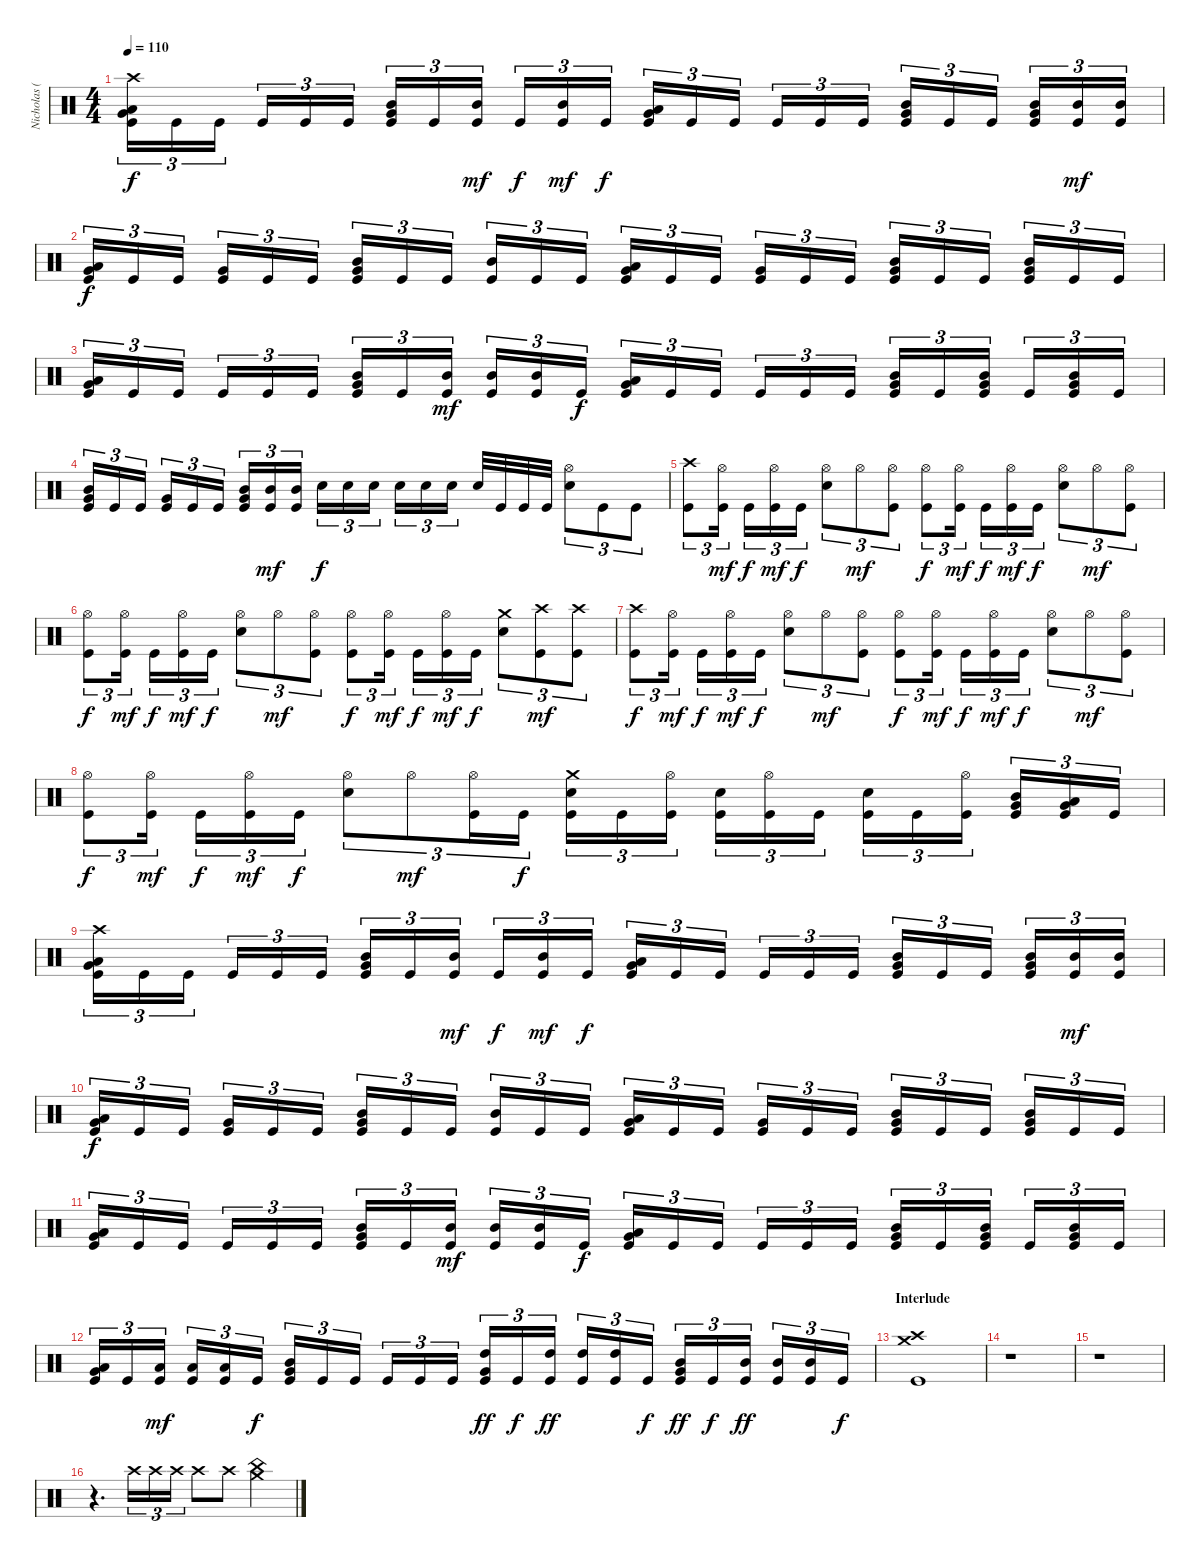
\track ("Nicholas (Drums)" "Nicholas (") {instrument percussion}
\staff {score}
\articulation defaults
\ts (4 4)
\tempo 110
\clef neutral
\ks c
("Crash high (hit)" "Low Tom (hit)" "Very Low Tom (hit)" "Kick (hit)").16{tu (3 2) dy f} "Kick (hit)".16{tu (3 2)} "Kick (hit)".16{tu (3 2)} "Kick (hit)".16{tu (3 2)} "Kick (hit)".16{tu (3 2)} "Kick (hit)".16{tu (3 2)} ("Mid Tom (hit)" "Very Low Tom (hit)" "Kick (hit)").16{tu (3 2)} "Kick (hit)".16{tu (3 2)} ("Mid Tom (hit)" "Kick (hit)").16{tu (3 2) dy mf} "Kick (hit)".16{tu (3 2) dy f} ("Mid Tom (hit)" "Kick (hit)").16{tu (3 2) dy mf} "Kick (hit)".16{tu (3 2) dy f} ("Low Tom (hit)" "Very Low Tom (hit)" "Kick (hit)").16{tu (3 2)} "Kick (hit)".16{tu (3 2)} "Kick (hit)".16{tu (3 2)} "Kick (hit)".16{tu (3 2)} "Kick (hit)".16{tu (3 2)} "Kick (hit)".16{tu (3 2)} ("Mid Tom (hit)" "Very Low Tom (hit)" "Kick (hit)").16{tu (3 2)} "Kick (hit)".16{tu (3 2)} "Kick (hit)".16{tu (3 2)} ("Mid Tom (hit)" "Very Low Tom (hit)" "Kick (hit)").16{tu (3 2)} ("Mid Tom (hit)" "Kick (hit)").16{tu (3 2) dy mf} ("Mid Tom (hit)" "Kick (hit)").16{tu (3 2)} |
("Low Tom (hit)" "Very Low Tom (hit)" "Kick (hit)").16{tu (3 2) dy f} "Kick (hit)".16{tu (3 2)} "Kick (hit)".16{tu (3 2)} ("Very Low Tom (hit)" "Kick (hit)").16{tu (3 2)} "Kick (hit)".16{tu (3 2)} "Kick (hit)".16{tu (3 2)} ("Mid Tom (hit)" "Very Low Tom (hit)" "Kick (hit)").16{tu (3 2)} "Kick (hit)".16{tu (3 2)} "Kick (hit)".16{tu (3 2)} ("Mid Tom (hit)" "Kick (hit)").16{tu (3 2)} "Kick (hit)".16{tu (3 2)} "Kick (hit)".16{tu (3 2)} ("Low Tom (hit)" "Very Low Tom (hit)" "Kick (hit)").16{tu (3 2)} "Kick (hit)".16{tu (3 2)} "Kick (hit)".16{tu (3 2)} ("Very Low Tom (hit)" "Kick (hit)").16{tu (3 2)} "Kick (hit)".16{tu (3 2)} "Kick (hit)".16{tu (3 2)} ("Mid Tom (hit)" "Very Low Tom (hit)" "Kick (hit)").16{tu (3 2)} "Kick (hit)".16{tu (3 2)} "Kick (hit)".16{tu (3 2)} ("Mid Tom (hit)" "Very Low Tom (hit)" "Kick (hit)").16{tu (3 2)} "Kick (hit)".16{tu (3 2)} "Kick (hit)".16{tu (3 2)} |
("Low Tom (hit)" "Very Low Tom (hit)" "Kick (hit)").16{tu (3 2)} "Kick (hit)".16{tu (3 2)} "Kick (hit)".16{tu (3 2)} "Kick (hit)".16{tu (3 2)} "Kick (hit)".16{tu (3 2)} "Kick (hit)".16{tu (3 2)} ("Mid Tom (hit)" "Very Low Tom (hit)" "Kick (hit)").16{tu (3 2)} "Kick (hit)".16{tu (3 2)} ("Mid Tom (hit)" "Kick (hit)").16{tu (3 2) dy mf} ("Mid Tom (hit)" "Kick (hit)").16{tu (3 2)} ("Mid Tom (hit)" "Kick (hit)").16{tu (3 2)} "Kick (hit)".16{tu (3 2) dy f} ("Low Tom (hit)" "Very Low Tom (hit)" "Kick (hit)").16{tu (3 2)} "Kick (hit)".16{tu (3 2)} "Kick (hit)".16{tu (3 2)} "Kick (hit)".16{tu (3 2)} "Kick (hit)".16{tu (3 2)} "Kick (hit)".16{tu (3 2)} ("Mid Tom (hit)" "Very Low Tom (hit)" "Kick (hit)").16{tu (3 2)} "Kick (hit)".16{tu (3 2)} ("Mid Tom (hit)" "Very Low Tom (hit)" "Kick (hit)").16{tu (3 2)} "Kick (hit)".16{tu (3 2)} ("Mid Tom (hit)" "Very Low Tom (hit)" "Kick (hit)").16{tu (3 2)} "Kick (hit)".16{tu (3 2)} |
("Mid Tom (hit)" "Very Low Tom (hit)" "Kick (hit)").16{tu (3 2)} "Kick (hit)".16{tu (3 2)} "Kick (hit)".16{tu (3 2)} ("Very Low Tom (hit)" "Kick (hit)").16{tu (3 2)} "Kick (hit)".16{tu (3 2)} "Kick (hit)".16{tu (3 2)} ("Mid Tom (hit)" "Very Low Tom (hit)" "Kick (hit)").16{tu (3 2)} ("Mid Tom (hit)" "Kick (hit)").16{tu (3 2) dy mf} ("Mid Tom (hit)" "Kick (hit)").16{tu (3 2)} "Electric Snare (hit)".16{tu (3 2) dy f} "Electric Snare (hit)".16{tu (3 2)} "Electric Snare (hit)".16{tu (3 2)} "Electric Snare (hit)".16{tu (3 2)} "Electric Snare (hit)".16{tu (3 2)} "Electric Snare (hit)".16{tu (3 2)} "Electric Snare (hit)".32 "Kick (hit)".32 "Kick (hit)".32 "Kick (hit)".32 ("Hi-Hat (open)" "Electric Snare (hit)").8{tu (3 2)} "Kick (hit)".8{tu (3 2)} "Kick (hit)".8{tu (3 2)} |
("Crash high (hit)" "Kick (hit)").8{tu (3 2)} ("Hi-Hat (open)" "Kick (hit)").16{tu (3 2) dy mf} "Kick (hit)".16{tu (3 2) dy f} ("Hi-Hat (open)" "Kick (hit)").16{tu (3 2) dy mf} "Kick (hit)".16{tu (3 2) dy f} ("Hi-Hat (open)" "Electric Snare (hit)").8{tu (3 2)} "Hi-Hat (open)".8{tu (3 2) dy mf} ("Hi-Hat (open)" "Kick (hit)").8{tu (3 2)} ("Hi-Hat (open)" "Kick (hit)").8{tu (3 2) dy f} ("Hi-Hat (open)" "Kick (hit)").16{tu (3 2) dy mf} "Kick (hit)".16{tu (3 2) dy f} ("Hi-Hat (open)" "Kick (hit)").16{tu (3 2) dy mf} "Kick (hit)".16{tu (3 2) dy f} ("Hi-Hat (open)" "Electric Snare (hit)").8{tu (3 2)} "Hi-Hat (open)".8{tu (3 2) dy mf} ("Hi-Hat (open)" "Kick (hit)").8{tu (3 2)} |
("Hi-Hat (open)" "Kick (hit)").8{tu (3 2) dy f} ("Hi-Hat (open)" "Kick (hit)").16{tu (3 2) dy mf} "Kick (hit)".16{tu (3 2) dy f} ("Hi-Hat (open)" "Kick (hit)").16{tu (3 2) dy mf} "Kick (hit)".16{tu (3 2) dy f} ("Hi-Hat (open)" "Electric Snare (hit)").8{tu (3 2)} "Hi-Hat (open)".8{tu (3 2) dy mf} ("Hi-Hat (open)" "Kick (hit)").8{tu (3 2)} ("Hi-Hat (open)" "Kick (hit)").8{tu (3 2) dy f} ("Hi-Hat (open)" "Kick (hit)").16{tu (3 2) dy mf} "Kick (hit)".16{tu (3 2) dy f} ("Hi-Hat (open)" "Kick (hit)").16{tu (3 2) dy mf} "Kick (hit)".16{tu (3 2) dy f} ("Crash medium (hit)" "Electric Snare (hit)").8{tu (3 2)} ("Crash high (hit)" "Kick (hit)").8{tu (3 2) dy mf} ("Crash high (hit)" "Kick (hit)").8{tu (3 2)} |
("Crash high (hit)" "Kick (hit)").8{tu (3 2) dy f} ("Hi-Hat (open)" "Kick (hit)").16{tu (3 2) dy mf} "Kick (hit)".16{tu (3 2) dy f} ("Hi-Hat (open)" "Kick (hit)").16{tu (3 2) dy mf} "Kick (hit)".16{tu (3 2) dy f} ("Hi-Hat (open)" "Electric Snare (hit)").8{tu (3 2)} "Hi-Hat (open)".8{tu (3 2) dy mf} ("Hi-Hat (open)" "Kick (hit)").8{tu (3 2)} ("Hi-Hat (open)" "Kick (hit)").8{tu (3 2) dy f} ("Hi-Hat (open)" "Kick (hit)").16{tu (3 2) dy mf} "Kick (hit)".16{tu (3 2) dy f} ("Hi-Hat (open)" "Kick (hit)").16{tu (3 2) dy mf} "Kick (hit)".16{tu (3 2) dy f} ("Hi-Hat (open)" "Electric Snare (hit)").8{tu (3 2)} "Hi-Hat (open)".8{tu (3 2) dy mf} ("Hi-Hat (open)" "Kick (hit)").8{tu (3 2)} |
("Hi-Hat (open)" "Kick (hit)").8{tu (3 2) dy f} ("Hi-Hat (open)" "Kick (hit)").16{tu (3 2) dy mf} "Kick (hit)".16{tu (3 2) dy f} ("Hi-Hat (open)" "Kick (hit)").16{tu (3 2) dy mf} "Kick (hit)".16{tu (3 2) dy f} ("Hi-Hat (open)" "Electric Snare (hit)").8{tu (3 2)} "Hi-Hat (open)".8{tu (3 2) dy mf} ("Hi-Hat (open)" "Kick (hit)").16{tu (3 2)} "Kick (hit)".16{tu (3 2) dy f} ("Crash medium (hit)" "Electric Snare (hit)" "Kick (hit)").16{tu (3 2)} "Kick (hit)".16{tu (3 2)} ("Hi-Hat (open)" "Kick (hit)").16{tu (3 2)} ("Electric Snare (hit)" "Kick (hit)").16{tu (3 2)} ("Hi-Hat (open)" "Kick (hit)").16{tu (3 2)} "Kick (hit)".16{tu (3 2)} ("Electric Snare (hit)" "Kick (hit)").16{tu (3 2)} "Kick (hit)".16{tu (3 2)} ("Hi-Hat (open)" "Kick (hit)").16{tu (3 2)} ("Mid Tom (hit)" "Very Low Tom (hit)" "Kick (hit)").16{tu (3 2)} ("Low Tom (hit)" "Very Low Tom (hit)" "Kick (hit)").16{tu (3 2)} "Kick (hit)".16{tu (3 2)} |
("Crash high (hit)" "Low Tom (hit)" "Very Low Tom (hit)" "Kick (hit)").16{tu (3 2)} "Kick (hit)".16{tu (3 2)} "Kick (hit)".16{tu (3 2)} "Kick (hit)".16{tu (3 2)} "Kick (hit)".16{tu (3 2)} "Kick (hit)".16{tu (3 2)} ("Mid Tom (hit)" "Very Low Tom (hit)" "Kick (hit)").16{tu (3 2)} "Kick (hit)".16{tu (3 2)} ("Mid Tom (hit)" "Kick (hit)").16{tu (3 2) dy mf} "Kick (hit)".16{tu (3 2) dy f} ("Mid Tom (hit)" "Kick (hit)").16{tu (3 2) dy mf} "Kick (hit)".16{tu (3 2) dy f} ("Low Tom (hit)" "Very Low Tom (hit)" "Kick (hit)").16{tu (3 2)} "Kick (hit)".16{tu (3 2)} "Kick (hit)".16{tu (3 2)} "Kick (hit)".16{tu (3 2)} "Kick (hit)".16{tu (3 2)} "Kick (hit)".16{tu (3 2)} ("Mid Tom (hit)" "Very Low Tom (hit)" "Kick (hit)").16{tu (3 2)} "Kick (hit)".16{tu (3 2)} "Kick (hit)".16{tu (3 2)} ("Mid Tom (hit)" "Very Low Tom (hit)" "Kick (hit)").16{tu (3 2)} ("Mid Tom (hit)" "Kick (hit)").16{tu (3 2) dy mf} ("Mid Tom (hit)" "Kick (hit)").16{tu (3 2)} |
("Low Tom (hit)" "Very Low Tom (hit)" "Kick (hit)").16{tu (3 2) dy f} "Kick (hit)".16{tu (3 2)} "Kick (hit)".16{tu (3 2)} ("Very Low Tom (hit)" "Kick (hit)").16{tu (3 2)} "Kick (hit)".16{tu (3 2)} "Kick (hit)".16{tu (3 2)} ("Mid Tom (hit)" "Very Low Tom (hit)" "Kick (hit)").16{tu (3 2)} "Kick (hit)".16{tu (3 2)} "Kick (hit)".16{tu (3 2)} ("Mid Tom (hit)" "Kick (hit)").16{tu (3 2)} "Kick (hit)".16{tu (3 2)} "Kick (hit)".16{tu (3 2)} ("Low Tom (hit)" "Very Low Tom (hit)" "Kick (hit)").16{tu (3 2)} "Kick (hit)".16{tu (3 2)} "Kick (hit)".16{tu (3 2)} ("Very Low Tom (hit)" "Kick (hit)").16{tu (3 2)} "Kick (hit)".16{tu (3 2)} "Kick (hit)".16{tu (3 2)} ("Mid Tom (hit)" "Very Low Tom (hit)" "Kick (hit)").16{tu (3 2)} "Kick (hit)".16{tu (3 2)} "Kick (hit)".16{tu (3 2)} ("Mid Tom (hit)" "Very Low Tom (hit)" "Kick (hit)").16{tu (3 2)} "Kick (hit)".16{tu (3 2)} "Kick (hit)".16{tu (3 2)} |
("Low Tom (hit)" "Very Low Tom (hit)" "Kick (hit)").16{tu (3 2)} "Kick (hit)".16{tu (3 2)} "Kick (hit)".16{tu (3 2)} "Kick (hit)".16{tu (3 2)} "Kick (hit)".16{tu (3 2)} "Kick (hit)".16{tu (3 2)} ("Mid Tom (hit)" "Very Low Tom (hit)" "Kick (hit)").16{tu (3 2)} "Kick (hit)".16{tu (3 2)} ("Mid Tom (hit)" "Kick (hit)").16{tu (3 2) dy mf} ("Mid Tom (hit)" "Kick (hit)").16{tu (3 2)} ("Mid Tom (hit)" "Kick (hit)").16{tu (3 2)} "Kick (hit)".16{tu (3 2) dy f} ("Low Tom (hit)" "Very Low Tom (hit)" "Kick (hit)").16{tu (3 2)} "Kick (hit)".16{tu (3 2)} "Kick (hit)".16{tu (3 2)} "Kick (hit)".16{tu (3 2)} "Kick (hit)".16{tu (3 2)} "Kick (hit)".16{tu (3 2)} ("Mid Tom (hit)" "Very Low Tom (hit)" "Kick (hit)").16{tu (3 2)} "Kick (hit)".16{tu (3 2)} ("Mid Tom (hit)" "Very Low Tom (hit)" "Kick (hit)").16{tu (3 2)} "Kick (hit)".16{tu (3 2)} ("Mid Tom (hit)" "Very Low Tom (hit)" "Kick (hit)").16{tu (3 2)} "Kick (hit)".16{tu (3 2)} |
("Low Tom (hit)" "Very Low Tom (hit)" "Kick (hit)").16{tu (3 2)} "Kick (hit)".16{tu (3 2)} ("Low Tom (hit)" "Kick (hit)").16{tu (3 2) dy mf} ("Low Tom (hit)" "Kick (hit)").16{tu (3 2)} ("Low Tom (hit)" "Kick (hit)").16{tu (3 2)} "Kick (hit)".16{tu (3 2) dy f} ("Mid Tom (hit)" "Very Low Tom (hit)" "Kick (hit)").16{tu (3 2)} "Kick (hit)".16{tu (3 2)} "Kick (hit)".16{tu (3 2)} "Kick (hit)".16{tu (3 2)} "Kick (hit)".16{tu (3 2)} "Kick (hit)".16{tu (3 2)} ("High Tom (hit)" "Very Low Tom (hit)" "Kick (hit)").16{tu (3 2) dy ff} "Kick (hit)".16{tu (3 2) dy f} ("High Tom (hit)" "Kick (hit)").16{tu (3 2) dy ff} ("High Tom (hit)" "Kick (hit)").16{tu (3 2)} ("High Tom (hit)" "Kick (hit)").16{tu (3 2)} "Kick (hit)".16{tu (3 2) dy f} ("Mid Tom (hit)" "Very Low Tom (hit)" "Kick (hit)").16{tu (3 2) dy ff} "Kick (hit)".16{tu (3 2) dy f} ("Mid Tom (hit)" "Kick (hit)").16{tu (3 2) dy ff} ("Mid Tom (hit)" "Kick (hit)").16{tu (3 2)} ("Mid Tom (hit)" "Kick (hit)").16{tu (3 2)} "Kick (hit)".16{tu (3 2) dy f} |
\section ("" "Interlude")
("Crash high (hit)" "Crash medium (hit)" "Kick (hit)").1 |
r.1 |
r.1 |
r.4{d} "Crash high (hit)".16{tu (3 2)} "Crash high (hit)".16{tu (3 2)} "Crash high (hit)".16{tu (3 2)} "Crash high (hit)".8 "Crash high (hit)".8 ("Crash medium (hit)" "China (hit)").4
